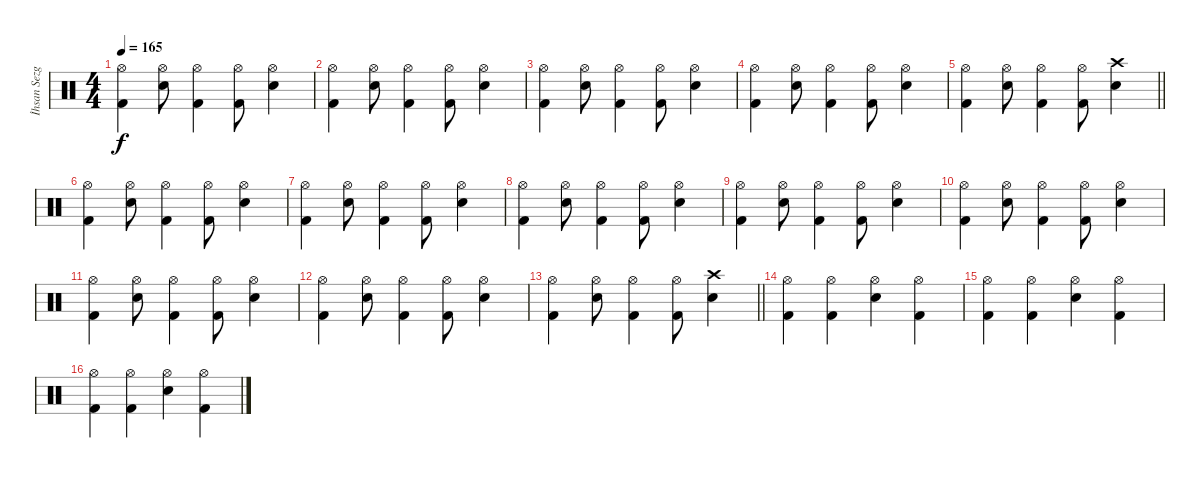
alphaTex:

\track ("İhsan Sezgin" "İhsan Sezg") {instrument percussion}
\staff {score}
\articulation defaults
\ts (4 4)
\tempo 165
\clef neutral
\ks c
("Hi-Hat (open)" "Kick (hit) 2").4{dy f} ("Hi-Hat (open)" "Snare (hit) 2").8 ("Hi-Hat (open)" "Kick (hit) 2").4 ("Hi-Hat (open)" "Kick (hit) 2").8 ("Hi-Hat (open)" "Snare (hit) 2").4 |
("Hi-Hat (open)" "Kick (hit) 2").4 ("Hi-Hat (open)" "Snare (hit) 2").8 ("Hi-Hat (open)" "Kick (hit) 2").4 ("Hi-Hat (open)" "Kick (hit) 2").8 ("Hi-Hat (open)" "Snare (hit) 2").4 |
("Hi-Hat (open)" "Kick (hit) 2").4 ("Hi-Hat (open)" "Snare (hit) 2").8 ("Hi-Hat (open)" "Kick (hit) 2").4 ("Hi-Hat (open)" "Kick (hit) 2").8 ("Hi-Hat (open)" "Snare (hit) 2").4 |
("Hi-Hat (open)" "Kick (hit) 2").4 ("Hi-Hat (open)" "Snare (hit) 2").8 ("Hi-Hat (open)" "Kick (hit) 2").4 ("Hi-Hat (open)" "Kick (hit) 2").8 ("Hi-Hat (open)" "Snare (hit) 2").4 |
\barLineRight lightlight
("Hi-Hat (open)" "Kick (hit) 2").4 ("Hi-Hat (open)" "Snare (hit) 2").8 ("Hi-Hat (open)" "Kick (hit) 2").4 ("Hi-Hat (open)" "Kick (hit) 2").8 ("Crash high (hit)" "Snare (hit) 2").4 |
("Hi-Hat (open)" "Kick (hit) 2").4 ("Hi-Hat (open)" "Snare (hit) 2").8 ("Hi-Hat (open)" "Kick (hit) 2").4 ("Hi-Hat (open)" "Kick (hit) 2").8 ("Hi-Hat (open)" "Snare (hit) 2").4 |
("Hi-Hat (open)" "Kick (hit) 2").4 ("Hi-Hat (open)" "Snare (hit) 2").8 ("Hi-Hat (open)" "Kick (hit) 2").4 ("Hi-Hat (open)" "Kick (hit) 2").8 ("Hi-Hat (open)" "Snare (hit) 2").4 |
("Hi-Hat (open)" "Kick (hit) 2").4 ("Hi-Hat (open)" "Snare (hit) 2").8 ("Hi-Hat (open)" "Kick (hit) 2").4 ("Hi-Hat (open)" "Kick (hit) 2").8 ("Hi-Hat (open)" "Snare (hit) 2").4 |
("Hi-Hat (open)" "Kick (hit) 2").4 ("Hi-Hat (open)" "Snare (hit) 2").8 ("Hi-Hat (open)" "Kick (hit) 2").4 ("Hi-Hat (open)" "Kick (hit) 2").8 ("Hi-Hat (open)" "Snare (hit) 2").4 |
("Hi-Hat (open)" "Kick (hit) 2").4 ("Hi-Hat (open)" "Snare (hit) 2").8 ("Hi-Hat (open)" "Kick (hit) 2").4 ("Hi-Hat (open)" "Kick (hit) 2").8 ("Hi-Hat (open)" "Snare (hit) 2").4 |
("Hi-Hat (open)" "Kick (hit) 2").4 ("Hi-Hat (open)" "Snare (hit) 2").8 ("Hi-Hat (open)" "Kick (hit) 2").4 ("Hi-Hat (open)" "Kick (hit) 2").8 ("Hi-Hat (open)" "Snare (hit) 2").4 |
("Hi-Hat (open)" "Kick (hit) 2").4 ("Hi-Hat (open)" "Snare (hit) 2").8 ("Hi-Hat (open)" "Kick (hit) 2").4 ("Hi-Hat (open)" "Kick (hit) 2").8 ("Hi-Hat (open)" "Snare (hit) 2").4 |
\barLineRight lightlight
("Hi-Hat (open)" "Kick (hit) 2").4 ("Hi-Hat (open)" "Snare (hit) 2").8 ("Hi-Hat (open)" "Kick (hit) 2").4 ("Hi-Hat (open)" "Kick (hit) 2").8 ("Crash high (hit)" "Snare (hit) 2").4 |
("Hi-Hat (open)" "Kick (hit) 2").4 ("Hi-Hat (open)" "Kick (hit) 2").4 ("Hi-Hat (open)" "Snare (hit) 2").4 ("Hi-Hat (open)" "Kick (hit) 2").4 |
("Hi-Hat (open)" "Kick (hit) 2").4 ("Hi-Hat (open)" "Kick (hit) 2").4 ("Hi-Hat (open)" "Snare (hit) 2").4 ("Hi-Hat (open)" "Kick (hit) 2").4 |
("Hi-Hat (open)" "Kick (hit) 2").4 ("Hi-Hat (open)" "Kick (hit) 2").4 ("Hi-Hat (open)" "Snare (hit) 2").4 ("Hi-Hat (open)" "Kick (hit) 2").4
